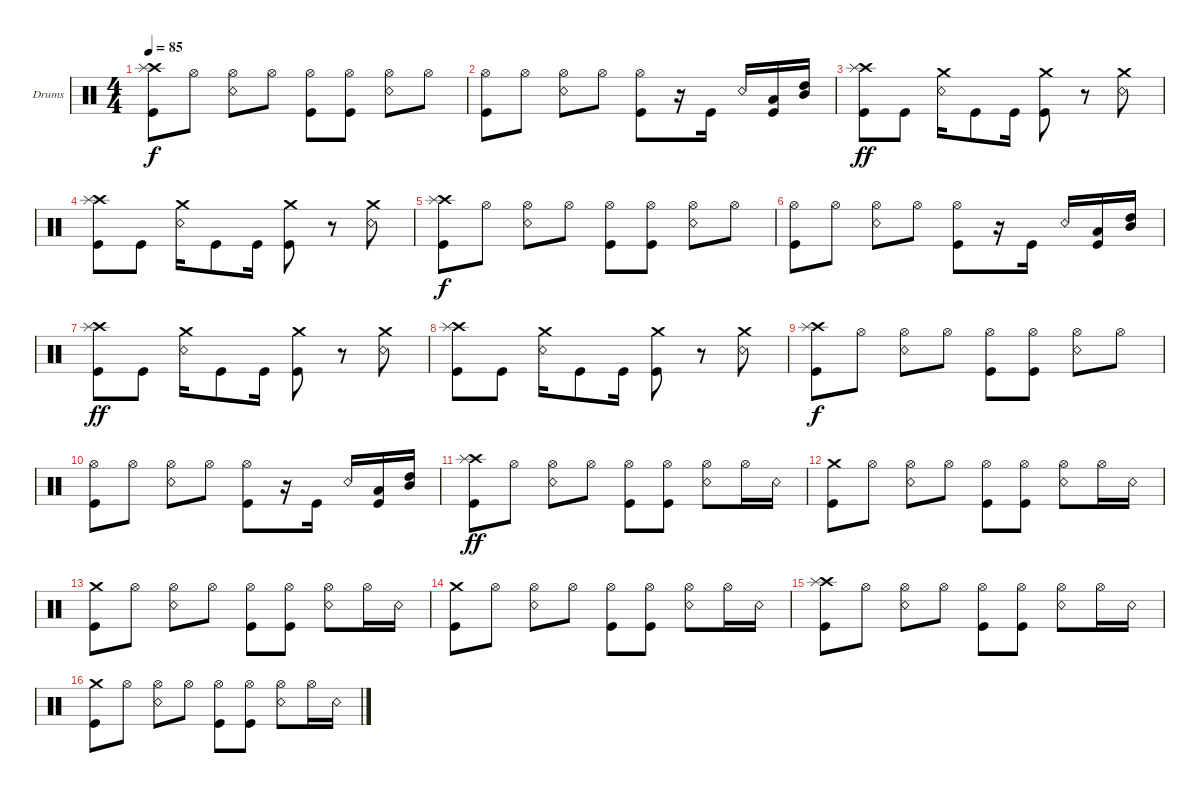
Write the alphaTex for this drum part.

\defaultSystemsLayout 4
\bracketExtendMode groupsimilarinstruments
\firstSystemTrackNameOrientation horizontal
\otherSystemsTrackNameOrientation horizontal
\track ("Drumkit" "Drums") {instrument percussion}
\staff {score}
\articulation defaults
\ts (4 4)
\tempo 85
\clef neutral
\scale
0.333333
\ks c
("Kick (hit)" "Crash high (hit)" "Splash (hit)").8{dy f} "Hi-Hat (open)".8 ("Snare (rim shot)" "Hi-Hat (open)").8 "Hi-Hat (open)".8 ("Kick (hit)" "Hi-Hat (open)").8 ("Kick (hit)" "Hi-Hat (open)").8 ("Snare (rim shot)" "Hi-Hat (open)").8 "Hi-Hat (open)".8 |
\scale
0.333333 ("Kick (hit)" "Hi-Hat (open)").8 "Hi-Hat (open)".8 ("Snare (rim shot)" "Hi-Hat (open)").8 "Hi-Hat (open)".8 ("Kick (hit)" "Hi-Hat (open)").8 r.16 "Kick (hit)".16 "Snare (rim shot)".16 ("Kick (hit)" "Low Tom (hit)").16 ("Mid Tom (hit)" "High Tom (hit)").16 |
\scale
0.333333 ("Kick (hit)" "Crash high (hit)" "Splash (hit)").8{dy ff} "Kick (hit)".8 ("Snare (rim shot)" "Crash medium (hit)").16 "Kick (hit)".8 "Kick (hit)".16 ("Kick (hit)" "Crash medium (hit)").8 r.8 ("Snare (rim shot)" "Crash medium (hit)").8 |
\scale
0.333333 ("Kick (hit)" "Crash high (hit)" "Splash (hit)").8 "Kick (hit)".8 ("Snare (rim shot)" "Crash medium (hit)").16 "Kick (hit)".8 "Kick (hit)".16 ("Kick (hit)" "Crash medium (hit)").8 r.8 ("Snare (rim shot)" "Crash medium (hit)").8 |
\scale
0.333333 ("Kick (hit)" "Crash high (hit)" "Splash (hit)").8{dy f} "Hi-Hat (open)".8 ("Snare (rim shot)" "Hi-Hat (open)").8 "Hi-Hat (open)".8 ("Kick (hit)" "Hi-Hat (open)").8 ("Kick (hit)" "Hi-Hat (open)").8 ("Snare (rim shot)" "Hi-Hat (open)").8 "Hi-Hat (open)".8 |
\scale
0.333333 ("Kick (hit)" "Hi-Hat (open)").8 "Hi-Hat (open)".8 ("Snare (rim shot)" "Hi-Hat (open)").8 "Hi-Hat (open)".8 ("Kick (hit)" "Hi-Hat (open)").8 r.16 "Kick (hit)".16 "Snare (rim shot)".16 ("Kick (hit)" "Low Tom (hit)").16 ("Mid Tom (hit)" "High Tom (hit)").16 |
\scale
0.333333 ("Kick (hit)" "Crash high (hit)" "Splash (hit)").8{dy ff} "Kick (hit)".8 ("Snare (rim shot)" "Crash medium (hit)").16 "Kick (hit)".8 "Kick (hit)".16 ("Kick (hit)" "Crash medium (hit)").8 r.8 ("Snare (rim shot)" "Crash medium (hit)").8 |
\scale
0.333333 ("Kick (hit)" "Crash high (hit)" "Splash (hit)").8 "Kick (hit)".8 ("Snare (rim shot)" "Crash medium (hit)").16 "Kick (hit)".8 "Kick (hit)".16 ("Kick (hit)" "Crash medium (hit)").8 r.8 ("Snare (rim shot)" "Crash medium (hit)").8 |
\scale
0.333333 ("Kick (hit)" "Crash high (hit)" "Splash (hit)").8{dy f} "Hi-Hat (open)".8 ("Snare (rim shot)" "Hi-Hat (open)").8 "Hi-Hat (open)".8 ("Kick (hit)" "Hi-Hat (open)").8 ("Kick (hit)" "Hi-Hat (open)").8 ("Snare (rim shot)" "Hi-Hat (open)").8 "Hi-Hat (open)".8 |
\scale
0.333333 ("Kick (hit)" "Hi-Hat (open)").8 "Hi-Hat (open)".8 ("Snare (rim shot)" "Hi-Hat (open)").8 "Hi-Hat (open)".8 ("Kick (hit)" "Hi-Hat (open)").8 r.16 "Kick (hit)".16 "Snare (rim shot)".16 ("Kick (hit)" "Low Tom (hit)").16 ("Mid Tom (hit)" "High Tom (hit)").16 |
\scale
0.333333 ("Kick (hit)" "Crash high (hit)" "Splash (hit)").8{dy ff} "Hi-Hat (open)".8 ("Snare (rim shot)" "Hi-Hat (open)").8 "Hi-Hat (open)".8 ("Hi-Hat (open)" "Kick (hit)").8 ("Hi-Hat (open)" "Kick (hit)").8 ("Hi-Hat (open)" "Snare (rim shot)").8 "Hi-Hat (open)".16 "Snare (rim shot)".16 |
\scale
0.333333 ("Kick (hit)" "Crash medium (hit)").8 "Hi-Hat (open)".8 ("Snare (rim shot)" "Hi-Hat (open)").8 "Hi-Hat (open)".8 ("Hi-Hat (open)" "Kick (hit)").8 ("Hi-Hat (open)" "Kick (hit)").8 ("Hi-Hat (open)" "Snare (rim shot)").8 "Hi-Hat (open)".16 "Snare (rim shot)".16 |
\scale
0.333333 ("Kick (hit)" "Crash medium (hit)").8 "Hi-Hat (open)".8 ("Snare (rim shot)" "Hi-Hat (open)").8 "Hi-Hat (open)".8 ("Hi-Hat (open)" "Kick (hit)").8 ("Hi-Hat (open)" "Kick (hit)").8 ("Hi-Hat (open)" "Snare (rim shot)").8 "Hi-Hat (open)".16 "Snare (rim shot)".16 |
\scale
0.333333 ("Kick (hit)" "Crash medium (hit)").8 "Hi-Hat (open)".8 ("Snare (rim shot)" "Hi-Hat (open)").8 "Hi-Hat (open)".8 ("Hi-Hat (open)" "Kick (hit)").8 ("Hi-Hat (open)" "Kick (hit)").8 ("Hi-Hat (open)" "Snare (rim shot)").8 "Hi-Hat (open)".16 "Snare (rim shot)".16 |
\scale
0.333333 ("Kick (hit)" "Crash high (hit)" "Splash (hit)").8 "Hi-Hat (open)".8 ("Snare (rim shot)" "Hi-Hat (open)").8 "Hi-Hat (open)".8 ("Hi-Hat (open)" "Kick (hit)").8 ("Hi-Hat (open)" "Kick (hit)").8 ("Hi-Hat (open)" "Snare (rim shot)").8 "Hi-Hat (open)".16 "Snare (rim shot)".16 |
\scale
0.333333 ("Kick (hit)" "Crash medium (hit)").8 "Hi-Hat (open)".8 ("Snare (rim shot)" "Hi-Hat (open)").8 "Hi-Hat (open)".8 ("Hi-Hat (open)" "Kick (hit)").8 ("Hi-Hat (open)" "Kick (hit)").8 ("Hi-Hat (open)" "Snare (rim shot)").8 "Hi-Hat (open)".16 "Snare (rim shot)".16
